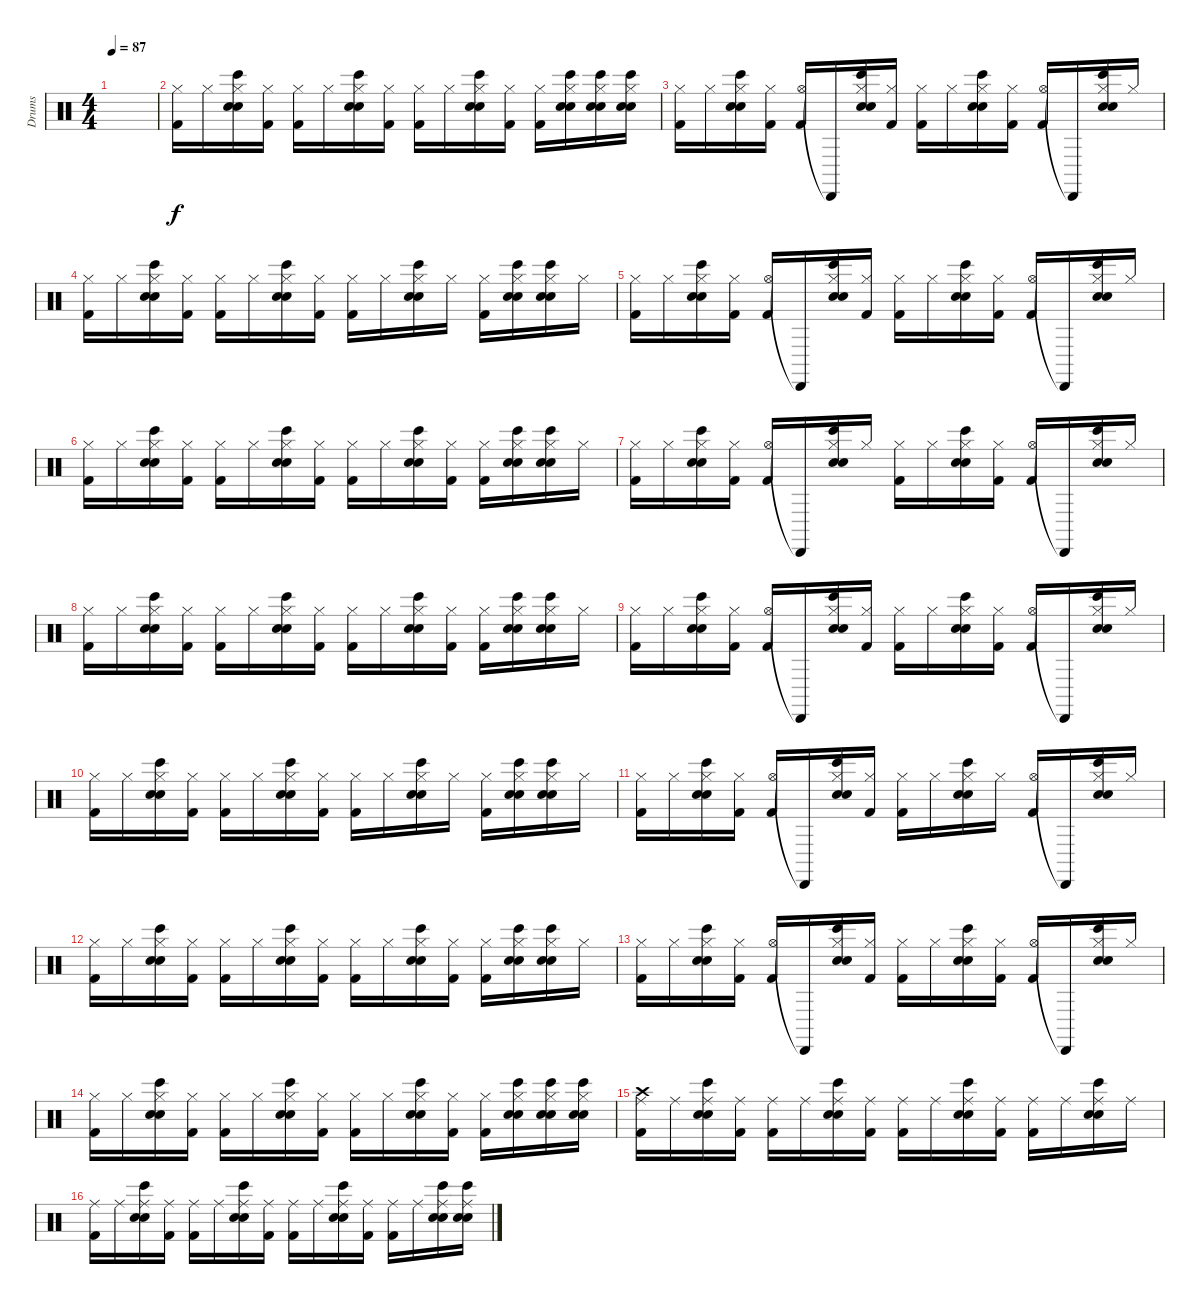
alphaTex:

\track ("Drums" "Drums") {instrument percussion}
\staff {score}
\articulation defaults
\ts (4 4)
\tempo 87
\clef neutral
\ks c
|
("Hi-Hat (closed)" "Kick (hit) 2").16 "Hi-Hat (closed)".16 ("Hi-Hat (closed)" "Electric Snare (hit)" "Bongo High (hit)" "Snare (hit) 2").16 ("Hi-Hat (closed)" "Kick (hit) 2").16 ("Hi-Hat (closed)" "Kick (hit) 2").16 "Hi-Hat (closed)".16 ("Hi-Hat (closed)" "Electric Snare (hit)" "Bongo High (hit)" "Snare (hit) 2").16 ("Hi-Hat (closed)" "Kick (hit) 2").16 ("Hi-Hat (closed)" "Kick (hit) 2").16 "Hi-Hat (closed)".16 ("Hi-Hat (closed)" "Electric Snare (hit)" "Bongo High (hit)" "Snare (hit) 2").16 ("Hi-Hat (closed)" "Kick (hit) 2").16 ("Hi-Hat (closed)" "Kick (hit) 2").16 ("Hi-Hat (closed)" "Electric Snare (hit)" "Bongo High (hit)" "Snare (hit) 2").16 ("Hi-Hat (closed)" "Electric Snare (hit)" "Bongo High (hit)" "Snare (hit) 2").16 ("Hi-Hat (closed)" "Electric Snare (hit)" "Bongo High (hit)" "Snare (hit) 2").16 |
("Hi-Hat (closed)" "Kick (hit) 2").16 "Hi-Hat (closed)".16 ("Hi-Hat (closed)" "Electric Snare (hit)" "Bongo High (hit)" "Snare (hit) 2").16 ("Hi-Hat (closed)" "Kick (hit) 2").16 ("Hi-Hat (open)" "Kick (hit) 2").16 "Cabasa (hit)"{t}.16 ("Hi-Hat (closed)" "Electric Snare (hit)" "Bongo High (hit)" "Snare (hit) 2").16 ("Hi-Hat (closed)" "Kick (hit) 2").16 ("Hi-Hat (closed)" "Kick (hit) 2").16 "Hi-Hat (closed)".16 ("Hi-Hat (closed)" "Electric Snare (hit)" "Bongo High (hit)" "Snare (hit) 2").16 ("Hi-Hat (closed)" "Kick (hit) 2").16 ("Hi-Hat (open)" "Kick (hit) 2").16 "Cabasa (hit)"{t}.16 ("Hi-Hat (closed)" "Electric Snare (hit)" "Bongo High (hit)" "Snare (hit) 2").16 "Hi-Hat (closed)".16 |
("Hi-Hat (closed)" "Kick (hit) 2").16 "Hi-Hat (closed)".16 ("Hi-Hat (closed)" "Electric Snare (hit)" "Bongo High (hit)" "Snare (hit) 2").16 ("Hi-Hat (closed)" "Kick (hit) 2").16 ("Hi-Hat (closed)" "Kick (hit) 2").16 "Hi-Hat (closed)".16 ("Hi-Hat (closed)" "Electric Snare (hit)" "Bongo High (hit)" "Snare (hit) 2").16 ("Hi-Hat (closed)" "Kick (hit) 2").16 ("Hi-Hat (closed)" "Kick (hit) 2").16 "Hi-Hat (closed)".16 ("Hi-Hat (closed)" "Electric Snare (hit)" "Bongo High (hit)" "Snare (hit) 2").16 "Hi-Hat (closed)".16 ("Hi-Hat (closed)" "Kick (hit) 2").16 ("Hi-Hat (closed)" "Electric Snare (hit)" "Bongo High (hit)" "Snare (hit) 2").16 ("Hi-Hat (closed)" "Electric Snare (hit)" "Bongo High (hit)" "Snare (hit) 2").16 "Hi-Hat (closed)".16 |
("Hi-Hat (closed)" "Kick (hit) 2").16 "Hi-Hat (closed)".16 ("Hi-Hat (closed)" "Electric Snare (hit)" "Bongo High (hit)" "Snare (hit) 2").16 ("Hi-Hat (closed)" "Kick (hit) 2").16 ("Hi-Hat (open)" "Kick (hit) 2").16 "Cabasa (hit)"{t}.16 ("Hi-Hat (closed)" "Electric Snare (hit)" "Bongo High (hit)" "Snare (hit) 2").16 ("Hi-Hat (closed)" "Kick (hit) 2").16 ("Hi-Hat (closed)" "Kick (hit) 2").16 "Hi-Hat (closed)".16 ("Hi-Hat (closed)" "Electric Snare (hit)" "Bongo High (hit)" "Snare (hit) 2").16 ("Hi-Hat (closed)" "Kick (hit) 2").16 ("Hi-Hat (open)" "Kick (hit) 2").16 "Cabasa (hit)"{t}.16 ("Hi-Hat (closed)" "Electric Snare (hit)" "Bongo High (hit)" "Snare (hit) 2").16 "Hi-Hat (closed)".16 |
("Hi-Hat (closed)" "Kick (hit) 2").16 "Hi-Hat (closed)".16 ("Hi-Hat (closed)" "Electric Snare (hit)" "Bongo High (hit)" "Snare (hit) 2").16 ("Hi-Hat (closed)" "Kick (hit) 2").16 ("Hi-Hat (closed)" "Kick (hit) 2").16 "Hi-Hat (closed)".16 ("Hi-Hat (closed)" "Electric Snare (hit)" "Bongo High (hit)" "Snare (hit) 2").16 ("Hi-Hat (closed)" "Kick (hit) 2").16 ("Hi-Hat (closed)" "Kick (hit) 2").16 "Hi-Hat (closed)".16 ("Hi-Hat (closed)" "Electric Snare (hit)" "Bongo High (hit)" "Snare (hit) 2").16 ("Hi-Hat (closed)" "Kick (hit) 2").16 ("Hi-Hat (closed)" "Kick (hit) 2").16 ("Hi-Hat (closed)" "Electric Snare (hit)" "Bongo High (hit)" "Snare (hit) 2").16 ("Hi-Hat (closed)" "Electric Snare (hit)" "Bongo High (hit)" "Snare (hit) 2").16 "Hi-Hat (closed)".16 |
("Hi-Hat (closed)" "Kick (hit) 2").16 "Hi-Hat (closed)".16 ("Hi-Hat (closed)" "Electric Snare (hit)" "Bongo High (hit)" "Snare (hit) 2").16 ("Hi-Hat (closed)" "Kick (hit) 2").16 ("Hi-Hat (open)" "Kick (hit) 2").16 "Cabasa (hit)"{t}.16 ("Hi-Hat (closed)" "Electric Snare (hit)" "Bongo High (hit)" "Snare (hit) 2").16 "Hi-Hat (closed)".16 ("Hi-Hat (closed)" "Kick (hit) 2").16 "Hi-Hat (closed)".16 ("Hi-Hat (closed)" "Electric Snare (hit)" "Bongo High (hit)" "Snare (hit) 2").16 ("Hi-Hat (closed)" "Kick (hit) 2").16 ("Hi-Hat (open)" "Kick (hit) 2").16 "Cabasa (hit)"{t}.16 ("Hi-Hat (closed)" "Electric Snare (hit)" "Bongo High (hit)" "Snare (hit) 2").16 "Hi-Hat (closed)".16 |
("Hi-Hat (closed)" "Kick (hit) 2").16 "Hi-Hat (closed)".16 ("Hi-Hat (closed)" "Electric Snare (hit)" "Bongo High (hit)" "Snare (hit) 2").16 ("Hi-Hat (closed)" "Kick (hit) 2").16 ("Hi-Hat (closed)" "Kick (hit) 2").16 "Hi-Hat (closed)".16 ("Hi-Hat (closed)" "Electric Snare (hit)" "Bongo High (hit)" "Snare (hit) 2").16 ("Hi-Hat (closed)" "Kick (hit) 2").16 ("Hi-Hat (closed)" "Kick (hit) 2").16 "Hi-Hat (closed)".16 ("Hi-Hat (closed)" "Electric Snare (hit)" "Bongo High (hit)" "Snare (hit) 2").16 ("Hi-Hat (closed)" "Kick (hit) 2").16 ("Hi-Hat (closed)" "Kick (hit) 2").16 ("Hi-Hat (closed)" "Electric Snare (hit)" "Bongo High (hit)" "Snare (hit) 2").16 ("Hi-Hat (closed)" "Electric Snare (hit)" "Bongo High (hit)" "Snare (hit) 2").16 "Hi-Hat (closed)".16 |
("Hi-Hat (closed)" "Kick (hit) 2").16 "Hi-Hat (closed)".16 ("Hi-Hat (closed)" "Electric Snare (hit)" "Bongo High (hit)" "Snare (hit) 2").16 ("Hi-Hat (closed)" "Kick (hit) 2").16 ("Hi-Hat (open)" "Kick (hit) 2").16 "Cabasa (hit)"{t}.16 ("Hi-Hat (closed)" "Electric Snare (hit)" "Bongo High (hit)" "Snare (hit) 2").16 ("Hi-Hat (closed)" "Kick (hit) 2").16 ("Hi-Hat (closed)" "Kick (hit) 2").16 "Hi-Hat (closed)".16 ("Hi-Hat (closed)" "Electric Snare (hit)" "Bongo High (hit)" "Snare (hit) 2").16 ("Hi-Hat (closed)" "Kick (hit) 2").16 ("Hi-Hat (open)" "Kick (hit) 2").16 "Cabasa (hit)"{t}.16 ("Hi-Hat (closed)" "Electric Snare (hit)" "Bongo High (hit)" "Snare (hit) 2").16 "Hi-Hat (closed)".16 |
("Hi-Hat (closed)" "Kick (hit) 2").16 "Hi-Hat (closed)".16 ("Hi-Hat (closed)" "Electric Snare (hit)" "Bongo High (hit)" "Snare (hit) 2").16 ("Hi-Hat (closed)" "Kick (hit) 2").16 ("Hi-Hat (closed)" "Kick (hit) 2").16 "Hi-Hat (closed)".16 ("Hi-Hat (closed)" "Electric Snare (hit)" "Bongo High (hit)" "Snare (hit) 2").16 ("Hi-Hat (closed)" "Kick (hit) 2").16 ("Hi-Hat (closed)" "Kick (hit) 2").16 "Hi-Hat (closed)".16 ("Hi-Hat (closed)" "Electric Snare (hit)" "Bongo High (hit)" "Snare (hit) 2").16 "Hi-Hat (closed)".16 ("Hi-Hat (closed)" "Kick (hit) 2").16 ("Hi-Hat (closed)" "Electric Snare (hit)" "Bongo High (hit)" "Snare (hit) 2").16 ("Hi-Hat (closed)" "Electric Snare (hit)" "Bongo High (hit)" "Snare (hit) 2").16 "Hi-Hat (closed)".16 |
("Hi-Hat (closed)" "Kick (hit) 2").16 "Hi-Hat (closed)".16 ("Hi-Hat (closed)" "Electric Snare (hit)" "Bongo High (hit)" "Snare (hit) 2").16 ("Hi-Hat (closed)" "Kick (hit) 2").16 ("Hi-Hat (open)" "Kick (hit) 2").16 "Cabasa (hit)"{t}.16 ("Hi-Hat (closed)" "Electric Snare (hit)" "Bongo High (hit)" "Snare (hit) 2").16 ("Hi-Hat (closed)" "Kick (hit) 2").16 ("Hi-Hat (closed)" "Kick (hit) 2").16 "Hi-Hat (closed)".16 ("Hi-Hat (closed)" "Electric Snare (hit)" "Bongo High (hit)" "Snare (hit) 2").16 "Hi-Hat (closed)".16 ("Hi-Hat (open)" "Kick (hit) 2").16 "Cabasa (hit)"{t}.16 ("Hi-Hat (closed)" "Electric Snare (hit)" "Bongo High (hit)" "Snare (hit) 2").16 "Hi-Hat (closed)".16 |
("Hi-Hat (closed)" "Kick (hit) 2").16 "Hi-Hat (closed)".16 ("Hi-Hat (closed)" "Electric Snare (hit)" "Bongo High (hit)" "Snare (hit) 2").16 ("Hi-Hat (closed)" "Kick (hit) 2").16 ("Hi-Hat (closed)" "Kick (hit) 2").16 "Hi-Hat (closed)".16 ("Hi-Hat (closed)" "Electric Snare (hit)" "Bongo High (hit)" "Snare (hit) 2").16 ("Hi-Hat (closed)" "Kick (hit) 2").16 ("Hi-Hat (closed)" "Kick (hit) 2").16 "Hi-Hat (closed)".16 ("Hi-Hat (closed)" "Electric Snare (hit)" "Bongo High (hit)" "Snare (hit) 2").16 ("Hi-Hat (closed)" "Kick (hit) 2").16 ("Hi-Hat (closed)" "Kick (hit) 2").16 ("Hi-Hat (closed)" "Electric Snare (hit)" "Bongo High (hit)" "Snare (hit) 2").16 ("Hi-Hat (closed)" "Electric Snare (hit)" "Bongo High (hit)" "Snare (hit) 2").16 "Hi-Hat (closed)".16 |
("Hi-Hat (closed)" "Kick (hit) 2").16 "Hi-Hat (closed)".16 ("Hi-Hat (closed)" "Electric Snare (hit)" "Bongo High (hit)" "Snare (hit) 2").16 ("Hi-Hat (closed)" "Kick (hit) 2").16 ("Hi-Hat (open)" "Kick (hit) 2").16 "Cabasa (hit)"{t}.16 ("Hi-Hat (closed)" "Electric Snare (hit)" "Bongo High (hit)" "Snare (hit) 2").16 ("Hi-Hat (closed)" "Kick (hit) 2").16 ("Hi-Hat (closed)" "Kick (hit) 2").16 "Hi-Hat (closed)".16 ("Hi-Hat (closed)" "Electric Snare (hit)" "Bongo High (hit)" "Snare (hit) 2").16 ("Hi-Hat (closed)" "Kick (hit) 2").16 ("Hi-Hat (open)" "Kick (hit) 2").16 "Cabasa (hit)"{t}.16 ("Hi-Hat (closed)" "Electric Snare (hit)" "Bongo High (hit)" "Snare (hit) 2").16 "Hi-Hat (closed)".16 |
("Hi-Hat (closed)" "Kick (hit) 2").16 "Hi-Hat (closed)".16 ("Hi-Hat (closed)" "Electric Snare (hit)" "Bongo High (hit)" "Snare (hit) 2").16 ("Hi-Hat (closed)" "Kick (hit) 2").16 ("Hi-Hat (closed)" "Kick (hit) 2").16 "Hi-Hat (closed)".16 ("Hi-Hat (closed)" "Electric Snare (hit)" "Bongo High (hit)" "Snare (hit) 2").16 ("Hi-Hat (closed)" "Kick (hit) 2").16 ("Hi-Hat (closed)" "Kick (hit) 2").16 "Hi-Hat (closed)".16 ("Hi-Hat (closed)" "Electric Snare (hit)" "Bongo High (hit)" "Snare (hit) 2").16 ("Hi-Hat (closed)" "Kick (hit) 2").16 ("Hi-Hat (closed)" "Kick (hit) 2").16 ("Hi-Hat (closed)" "Electric Snare (hit)" "Bongo High (hit)" "Snare (hit) 2").16 ("Hi-Hat (closed)" "Electric Snare (hit)" "Bongo High (hit)" "Snare (hit) 2").16 ("Hi-Hat (closed)" "Electric Snare (hit)" "Bongo High (hit)" "Snare (hit) 2").16 |
("Crash high (hit)" "Ride (middle)" "Kick (hit) 2").16 "Ride (middle)".16 ("Ride (middle)" "Electric Snare (hit)" "Bongo High (hit)" "Snare (hit) 2").16 ("Ride (middle)" "Kick (hit) 2").16 ("Ride (middle)" "Kick (hit) 2").16 "Ride (middle)".16 ("Ride (middle)" "Electric Snare (hit)" "Bongo High (hit)" "Snare (hit) 2").16 ("Ride (middle)" "Kick (hit) 2").16 ("Ride (middle)" "Kick (hit) 2").16 "Ride (middle)".16 ("Ride (middle)" "Electric Snare (hit)" "Bongo High (hit)" "Snare (hit) 2").16 ("Ride (middle)" "Kick (hit) 2").16 ("Ride (middle)" "Kick (hit) 2").16 "Ride (middle)".16 ("Ride (middle)" "Electric Snare (hit)" "Bongo High (hit)" "Snare (hit) 2").16 "Ride (middle)".16 |
("Ride (middle)" "Kick (hit) 2").16 "Ride (middle)".16 ("Ride (middle)" "Electric Snare (hit)" "Bongo High (hit)" "Snare (hit) 2").16 ("Ride (middle)" "Kick (hit) 2").16 ("Ride (middle)" "Kick (hit) 2").16 "Ride (middle)".16 ("Ride (middle)" "Electric Snare (hit)" "Bongo High (hit)" "Snare (hit) 2").16 ("Ride (middle)" "Kick (hit) 2").16 ("Ride (middle)" "Kick (hit) 2").16 "Ride (middle)".16 ("Ride (middle)" "Electric Snare (hit)" "Bongo High (hit)" "Snare (hit) 2").16 ("Ride (middle)" "Kick (hit) 2").16 ("Ride (middle)" "Kick (hit) 2").16 "Ride (middle)".16 ("Ride (middle)" "Electric Snare (hit)" "Bongo High (hit)" "Snare (hit) 2").16 ("Ride (middle)" "Electric Snare (hit)" "Bongo High (hit)" "Snare (hit) 2").16
